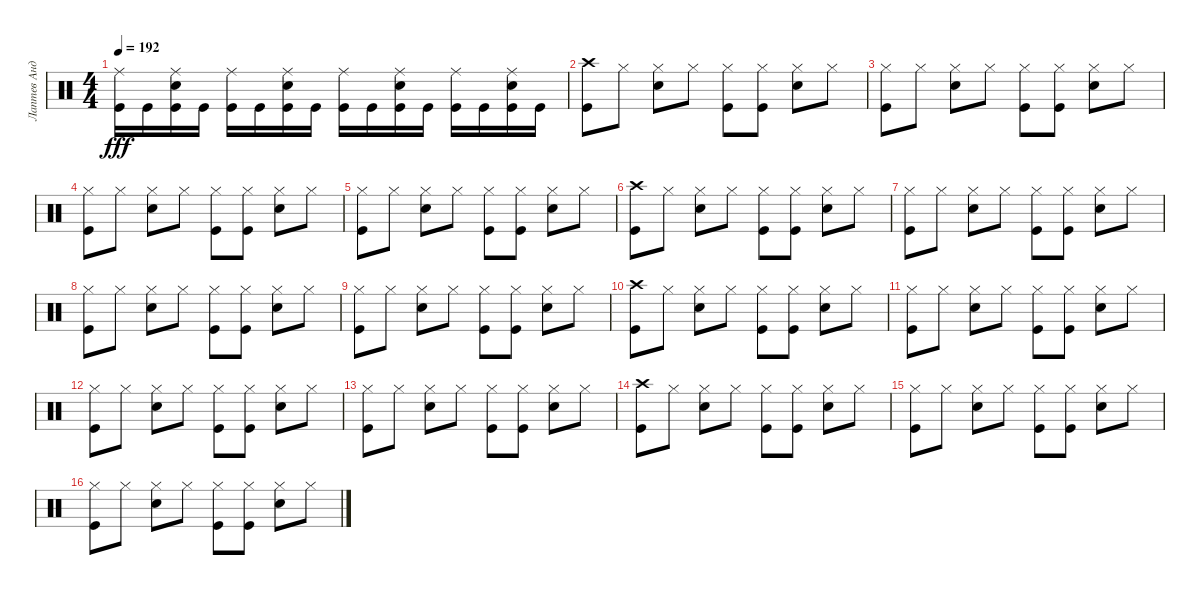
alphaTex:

\track ("Лаптев Андрей" "Лаптев Анд") {instrument percussion}
\staff {score}
\articulation defaults
\ts (4 4)
\tempo 192
\clef neutral
\ks c
("Kick (hit)" "Ride (middle)").16{dy fff} "Kick (hit)".16 ("Electric Snare (hit)" "Ride (middle)" "Kick (hit)").16 "Kick (hit)".16 ("Kick (hit)" "Ride (middle)").16 "Kick (hit)".16 ("Electric Snare (hit)" "Kick (hit)" "Ride (middle)").16 "Kick (hit)".16 ("Ride (middle)" "Kick (hit)").16 "Kick (hit)".16 ("Kick (hit)" "Electric Snare (hit)" "Ride (middle)").16 "Kick (hit)".16 ("Ride (middle)" "Kick (hit)").16 "Kick (hit)".16 ("Kick (hit)" "Electric Snare (hit)" "Ride (middle)").16 "Kick (hit)".16 |
("Kick (hit)" "Crash high (hit)").8 "Hi-Hat (closed)".8 ("Electric Snare (hit)" "Hi-Hat (closed)").8 "Hi-Hat (closed)".8 ("Kick (hit)" "Hi-Hat (closed)").8 ("Kick (hit)" "Hi-Hat (closed)").8 ("Electric Snare (hit)" "Hi-Hat (closed)").8 "Hi-Hat (closed)".8 |
("Hi-Hat (closed)" "Kick (hit)").8 "Hi-Hat (closed)".8 ("Hi-Hat (closed)" "Electric Snare (hit)").8 "Hi-Hat (closed)".8 ("Hi-Hat (closed)" "Kick (hit)").8 ("Hi-Hat (closed)" "Kick (hit)").8 ("Hi-Hat (closed)" "Electric Snare (hit)").8 "Hi-Hat (closed)".8 |
("Kick (hit)" "Hi-Hat (closed)").8 "Hi-Hat (closed)".8 ("Hi-Hat (closed)" "Electric Snare (hit)").8 "Hi-Hat (closed)".8 ("Hi-Hat (closed)" "Kick (hit)").8 ("Kick (hit)" "Hi-Hat (closed)").8 ("Hi-Hat (closed)" "Electric Snare (hit)").8 "Hi-Hat (closed)".8 |
("Hi-Hat (closed)" "Kick (hit)").8 "Hi-Hat (closed)".8 ("Hi-Hat (closed)" "Electric Snare (hit)").8 "Hi-Hat (closed)".8 ("Kick (hit)" "Hi-Hat (closed)").8 ("Hi-Hat (closed)" "Kick (hit)").8 ("Electric Snare (hit)" "Hi-Hat (closed)").8 "Hi-Hat (closed)".8 |
("Kick (hit)" "Crash high (hit)").8 "Hi-Hat (closed)".8 ("Electric Snare (hit)" "Hi-Hat (closed)").8 "Hi-Hat (closed)".8 ("Kick (hit)" "Hi-Hat (closed)").8 ("Kick (hit)" "Hi-Hat (closed)").8 ("Electric Snare (hit)" "Hi-Hat (closed)").8 "Hi-Hat (closed)".8 |
("Hi-Hat (closed)" "Kick (hit)").8 "Hi-Hat (closed)".8 ("Hi-Hat (closed)" "Electric Snare (hit)").8 "Hi-Hat (closed)".8 ("Hi-Hat (closed)" "Kick (hit)").8 ("Hi-Hat (closed)" "Kick (hit)").8 ("Hi-Hat (closed)" "Electric Snare (hit)").8 "Hi-Hat (closed)".8 |
("Kick (hit)" "Hi-Hat (closed)").8 "Hi-Hat (closed)".8 ("Hi-Hat (closed)" "Electric Snare (hit)").8 "Hi-Hat (closed)".8 ("Hi-Hat (closed)" "Kick (hit)").8 ("Kick (hit)" "Hi-Hat (closed)").8 ("Hi-Hat (closed)" "Electric Snare (hit)").8 "Hi-Hat (closed)".8 |
("Hi-Hat (closed)" "Kick (hit)").8 "Hi-Hat (closed)".8 ("Hi-Hat (closed)" "Electric Snare (hit)").8 "Hi-Hat (closed)".8 ("Kick (hit)" "Hi-Hat (closed)").8 ("Hi-Hat (closed)" "Kick (hit)").8 ("Electric Snare (hit)" "Hi-Hat (closed)").8 "Hi-Hat (closed)".8 |
("Kick (hit)" "Crash high (hit)").8 "Hi-Hat (closed)".8 ("Electric Snare (hit)" "Hi-Hat (closed)").8 "Hi-Hat (closed)".8 ("Kick (hit)" "Hi-Hat (closed)").8 ("Kick (hit)" "Hi-Hat (closed)").8 ("Electric Snare (hit)" "Hi-Hat (closed)").8 "Hi-Hat (closed)".8 |
("Hi-Hat (closed)" "Kick (hit)").8 "Hi-Hat (closed)".8 ("Hi-Hat (closed)" "Electric Snare (hit)").8 "Hi-Hat (closed)".8 ("Hi-Hat (closed)" "Kick (hit)").8 ("Hi-Hat (closed)" "Kick (hit)").8 ("Hi-Hat (closed)" "Electric Snare (hit)").8 "Hi-Hat (closed)".8 |
("Kick (hit)" "Hi-Hat (closed)").8 "Hi-Hat (closed)".8 ("Hi-Hat (closed)" "Electric Snare (hit)").8 "Hi-Hat (closed)".8 ("Hi-Hat (closed)" "Kick (hit)").8 ("Kick (hit)" "Hi-Hat (closed)").8 ("Hi-Hat (closed)" "Electric Snare (hit)").8 "Hi-Hat (closed)".8 |
("Hi-Hat (closed)" "Kick (hit)").8 "Hi-Hat (closed)".8 ("Hi-Hat (closed)" "Electric Snare (hit)").8 "Hi-Hat (closed)".8 ("Kick (hit)" "Hi-Hat (closed)").8 ("Hi-Hat (closed)" "Kick (hit)").8 ("Electric Snare (hit)" "Hi-Hat (closed)").8 "Hi-Hat (closed)".8 |
("Kick (hit)" "Crash high (hit)").8 "Hi-Hat (closed)".8 ("Electric Snare (hit)" "Hi-Hat (closed)").8 "Hi-Hat (closed)".8 ("Kick (hit)" "Hi-Hat (closed)").8 ("Kick (hit)" "Hi-Hat (closed)").8 ("Electric Snare (hit)" "Hi-Hat (closed)").8 "Hi-Hat (closed)".8 |
("Hi-Hat (closed)" "Kick (hit)").8 "Hi-Hat (closed)".8 ("Hi-Hat (closed)" "Electric Snare (hit)").8 "Hi-Hat (closed)".8 ("Hi-Hat (closed)" "Kick (hit)").8 ("Hi-Hat (closed)" "Kick (hit)").8 ("Hi-Hat (closed)" "Electric Snare (hit)").8 "Hi-Hat (closed)".8 |
("Kick (hit)" "Hi-Hat (closed)").8 "Hi-Hat (closed)".8 ("Hi-Hat (closed)" "Electric Snare (hit)").8 "Hi-Hat (closed)".8 ("Hi-Hat (closed)" "Kick (hit)").8 ("Kick (hit)" "Hi-Hat (closed)").8 ("Hi-Hat (closed)" "Electric Snare (hit)").8 "Hi-Hat (closed)".8
